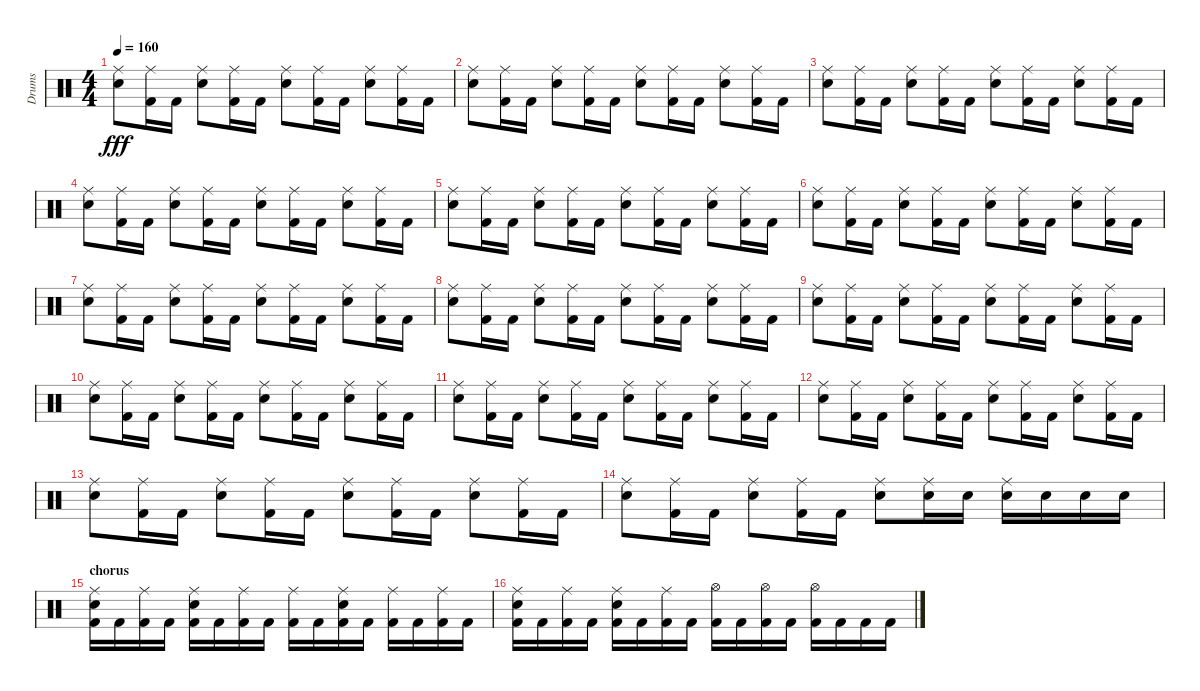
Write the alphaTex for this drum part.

\track ("Drums" "Drums") {instrument percussion}
\staff {score}
\articulation defaults
\ts (4 4)
\tempo 160
\clef neutral
\ks c
("Electric Snare (hit)" "Ride (middle)").8{dy fff} ("Kick (hit) 2" "Ride (middle)").16 "Kick (hit) 2".16 ("Electric Snare (hit)" "Ride (middle)").8 ("Kick (hit) 2" "Ride (middle)").16 "Kick (hit) 2".16 ("Electric Snare (hit)" "Ride (middle)").8 ("Kick (hit) 2" "Ride (middle)").16 "Kick (hit) 2".16 ("Electric Snare (hit)" "Ride (middle)").8 ("Kick (hit) 2" "Ride (middle)").16 "Kick (hit) 2".16 |
("Electric Snare (hit)" "Ride (middle)").8 ("Kick (hit) 2" "Ride (middle)").16 "Kick (hit) 2".16 ("Electric Snare (hit)" "Ride (middle)").8 ("Kick (hit) 2" "Ride (middle)").16 "Kick (hit) 2".16 ("Electric Snare (hit)" "Ride (middle)").8 ("Kick (hit) 2" "Ride (middle)").16 "Kick (hit) 2".16 ("Electric Snare (hit)" "Ride (middle)").8 ("Kick (hit) 2" "Ride (middle)").16 "Kick (hit) 2".16 |
("Electric Snare (hit)" "Ride (middle)").8 ("Kick (hit) 2" "Ride (middle)").16 "Kick (hit) 2".16 ("Electric Snare (hit)" "Ride (middle)").8 ("Kick (hit) 2" "Ride (middle)").16 "Kick (hit) 2".16 ("Electric Snare (hit)" "Ride (middle)").8 ("Kick (hit) 2" "Ride (middle)").16 "Kick (hit) 2".16 ("Electric Snare (hit)" "Ride (middle)").8 ("Kick (hit) 2" "Ride (middle)").16 "Kick (hit) 2".16 |
("Electric Snare (hit)" "Ride (middle)").8 ("Kick (hit) 2" "Ride (middle)").16 "Kick (hit) 2".16 ("Electric Snare (hit)" "Ride (middle)").8 ("Kick (hit) 2" "Ride (middle)").16 "Kick (hit) 2".16 ("Electric Snare (hit)" "Ride (middle)").8 ("Kick (hit) 2" "Ride (middle)").16 "Kick (hit) 2".16 ("Electric Snare (hit)" "Ride (middle)").8 ("Kick (hit) 2" "Ride (middle)").16 "Kick (hit) 2".16 |
("Electric Snare (hit)" "Ride (middle)").8 ("Kick (hit) 2" "Ride (middle)").16 "Kick (hit) 2".16 ("Electric Snare (hit)" "Ride (middle)").8 ("Kick (hit) 2" "Ride (middle)").16 "Kick (hit) 2".16 ("Electric Snare (hit)" "Ride (middle)").8 ("Kick (hit) 2" "Ride (middle)").16 "Kick (hit) 2".16 ("Electric Snare (hit)" "Ride (middle)").8 ("Kick (hit) 2" "Ride (middle)").16 "Kick (hit) 2".16 |
("Electric Snare (hit)" "Ride (middle)").8 ("Kick (hit) 2" "Ride (middle)").16 "Kick (hit) 2".16 ("Electric Snare (hit)" "Ride (middle)").8 ("Kick (hit) 2" "Ride (middle)").16 "Kick (hit) 2".16 ("Electric Snare (hit)" "Ride (middle)").8 ("Kick (hit) 2" "Ride (middle)").16 "Kick (hit) 2".16 ("Electric Snare (hit)" "Ride (middle)").8 ("Kick (hit) 2" "Ride (middle)").16 "Kick (hit) 2".16 |
("Electric Snare (hit)" "Ride (middle)").8 ("Kick (hit) 2" "Ride (middle)").16 "Kick (hit) 2".16 ("Electric Snare (hit)" "Ride (middle)").8 ("Kick (hit) 2" "Ride (middle)").16 "Kick (hit) 2".16 ("Electric Snare (hit)" "Ride (middle)").8 ("Kick (hit) 2" "Ride (middle)").16 "Kick (hit) 2".16 ("Electric Snare (hit)" "Ride (middle)").8 ("Kick (hit) 2" "Ride (middle)").16 "Kick (hit) 2".16 |
("Electric Snare (hit)" "Ride (middle)").8 ("Kick (hit) 2" "Ride (middle)").16 "Kick (hit) 2".16 ("Electric Snare (hit)" "Ride (middle)").8 ("Kick (hit) 2" "Ride (middle)").16 "Kick (hit) 2".16 ("Electric Snare (hit)" "Ride (middle)").8 ("Kick (hit) 2" "Ride (middle)").16 "Kick (hit) 2".16 ("Electric Snare (hit)" "Ride (middle)").8 ("Kick (hit) 2" "Ride (middle)").16 "Kick (hit) 2".16 |
("Electric Snare (hit)" "Ride (middle)").8 ("Kick (hit) 2" "Ride (middle)").16 "Kick (hit) 2".16 ("Electric Snare (hit)" "Ride (middle)").8 ("Kick (hit) 2" "Ride (middle)").16 "Kick (hit) 2".16 ("Electric Snare (hit)" "Ride (middle)").8 ("Kick (hit) 2" "Ride (middle)").16 "Kick (hit) 2".16 ("Electric Snare (hit)" "Ride (middle)").8 ("Kick (hit) 2" "Ride (middle)").16 "Kick (hit) 2".16 |
("Electric Snare (hit)" "Ride (middle)").8 ("Kick (hit) 2" "Ride (middle)").16 "Kick (hit) 2".16 ("Electric Snare (hit)" "Ride (middle)").8 ("Kick (hit) 2" "Ride (middle)").16 "Kick (hit) 2".16 ("Electric Snare (hit)" "Ride (middle)").8 ("Kick (hit) 2" "Ride (middle)").16 "Kick (hit) 2".16 ("Electric Snare (hit)" "Ride (middle)").8 ("Kick (hit) 2" "Ride (middle)").16 "Kick (hit) 2".16 |
("Electric Snare (hit)" "Ride (middle)").8 ("Kick (hit) 2" "Ride (middle)").16 "Kick (hit) 2".16 ("Electric Snare (hit)" "Ride (middle)").8 ("Kick (hit) 2" "Ride (middle)").16 "Kick (hit) 2".16 ("Electric Snare (hit)" "Ride (middle)").8 ("Kick (hit) 2" "Ride (middle)").16 "Kick (hit) 2".16 ("Electric Snare (hit)" "Ride (middle)").8 ("Kick (hit) 2" "Ride (middle)").16 "Kick (hit) 2".16 |
("Electric Snare (hit)" "Ride (middle)").8 ("Kick (hit) 2" "Ride (middle)").16 "Kick (hit) 2".16 ("Electric Snare (hit)" "Ride (middle)").8 ("Kick (hit) 2" "Ride (middle)").16 "Kick (hit) 2".16 ("Electric Snare (hit)" "Ride (middle)").8 ("Kick (hit) 2" "Ride (middle)").16 "Kick (hit) 2".16 ("Electric Snare (hit)" "Ride (middle)").8 ("Kick (hit) 2" "Ride (middle)").16 "Kick (hit) 2".16 |
("Electric Snare (hit)" "Ride (middle)").8 ("Kick (hit) 2" "Ride (middle)").16 "Kick (hit) 2".16 ("Electric Snare (hit)" "Ride (middle)").8 ("Kick (hit) 2" "Ride (middle)").16 "Kick (hit) 2".16 ("Electric Snare (hit)" "Ride (middle)").8 ("Kick (hit) 2" "Ride (middle)").16 "Kick (hit) 2".16 ("Electric Snare (hit)" "Ride (middle)").8 ("Kick (hit) 2" "Ride (middle)").16 "Kick (hit) 2".16 |
("Electric Snare (hit)" "Ride (middle)").8 ("Kick (hit) 2" "Ride (middle)").16 "Kick (hit) 2".16 ("Electric Snare (hit)" "Ride (middle)").8 ("Kick (hit) 2" "Ride (middle)").16 "Kick (hit) 2".16 ("Electric Snare (hit)" "Ride (middle)").8 ("Electric Snare (hit)" "Ride (middle)").16 "Electric Snare (hit)".16 ("Electric Snare (hit)" "Ride (middle)").16 "Electric Snare (hit)".16 "Electric Snare (hit)".16 "Electric Snare (hit)".16 |
\section ("" "chorus")
("Kick (hit) 2" "Electric Snare (hit)" "Ride (middle)").16 "Kick (hit) 2".16 ("Kick (hit) 2" "Ride (middle)").16 "Kick (hit) 2".16 ("Kick (hit) 2" "Electric Snare (hit)" "Ride (middle)").16 "Kick (hit) 2".16 ("Kick (hit) 2" "Ride (middle)").16 "Kick (hit) 2".16 ("Kick (hit) 2" "Ride (middle)").16 "Kick (hit) 2".16 ("Kick (hit) 2" "Electric Snare (hit)" "Ride (middle)").16 "Kick (hit) 2".16 ("Kick (hit) 2" "Ride (middle)").16 "Kick (hit) 2".16 ("Kick (hit) 2" "Ride (middle)").16 "Kick (hit) 2".16 |
("Kick (hit) 2" "Electric Snare (hit)" "Ride (middle)").16 "Kick (hit) 2".16 ("Kick (hit) 2" "Ride (middle)").16 "Kick (hit) 2".16 ("Kick (hit) 2" "Electric Snare (hit)" "Ride (middle)").16 "Kick (hit) 2".16 ("Kick (hit) 2" "Ride (middle)").16 "Kick (hit) 2".16 ("Kick (hit) 2" "Hi-Hat (open)").16 "Kick (hit) 2".16 ("Kick (hit) 2" "Hi-Hat (open)").16 "Kick (hit) 2".16 ("Kick (hit) 2" "Hi-Hat (open)").16 "Kick (hit) 2".16 "Kick (hit) 2".16 "Kick (hit) 2".16
